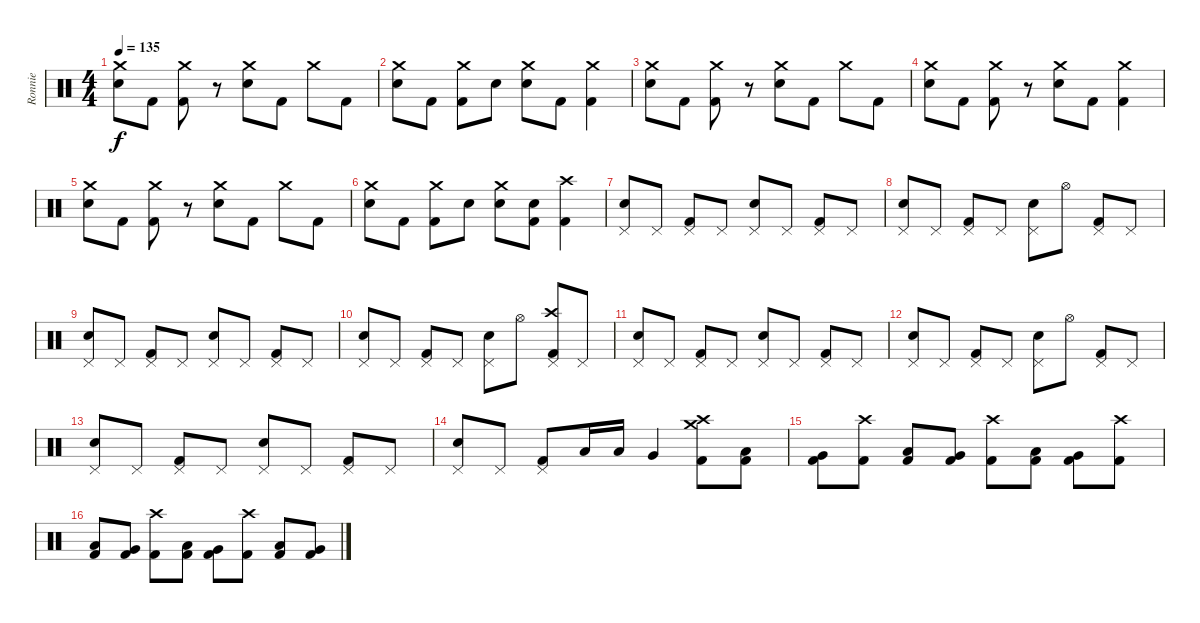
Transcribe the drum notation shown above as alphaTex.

\track ("Ronnie" "Ronnie") {instrument percussion}
\staff {score}
\articulation defaults
\ts (4 4)
\tempo 135
\clef neutral
\ks c
("Crash medium (hit)" "Electric Snare (hit)").8{dy f} "Kick (hit) 2".8 ("Kick (hit) 2" "Crash medium (hit)").8 r.8 ("Crash medium (hit)" "Electric Snare (hit)").8 "Kick (hit) 2".8 "Crash medium (hit)".8 "Kick (hit) 2".8 |
("Crash medium (hit)" "Electric Snare (hit)").8 "Kick (hit) 2".8 ("Kick (hit) 2" "Crash medium (hit)").8 "Electric Snare (hit)".8 ("Crash medium (hit)" "Electric Snare (hit)").8 "Kick (hit) 2".8 ("Kick (hit) 2" "Crash medium (hit)").4 |
("Crash medium (hit)" "Electric Snare (hit)").8 "Kick (hit) 2".8 ("Kick (hit) 2" "Crash medium (hit)").8 r.8 ("Crash medium (hit)" "Electric Snare (hit)").8 "Kick (hit) 2".8 "Crash medium (hit)".8 "Kick (hit) 2".8 |
("Crash medium (hit)" "Electric Snare (hit)").8 "Kick (hit) 2".8 ("Kick (hit) 2" "Crash medium (hit)").8 r.8 ("Crash medium (hit)" "Electric Snare (hit)").8 "Kick (hit) 2".8 ("Kick (hit) 2" "Crash medium (hit)").4 |
("Crash medium (hit)" "Electric Snare (hit)").8 "Kick (hit) 2".8 ("Kick (hit) 2" "Crash medium (hit)").8 r.8 ("Crash medium (hit)" "Electric Snare (hit)").8 "Kick (hit) 2".8 "Crash medium (hit)".8 "Kick (hit) 2".8 |
("Crash medium (hit)" "Electric Snare (hit)").8 "Kick (hit) 2".8 ("Kick (hit) 2" "Crash medium (hit)").8 "Electric Snare (hit)".8 ("Crash medium (hit)" "Electric Snare (hit)").8 ("Kick (hit) 2" "Electric Snare (hit)").8 ("Crash high (hit)" "Kick (hit) 2").4 |
("Pedal Hi-Hat (hit)" "Electric Snare (hit)").8 "Pedal Hi-Hat (hit)".8 ("Pedal Hi-Hat (hit)" "Kick (hit) 2").8 "Pedal Hi-Hat (hit)".8 ("Pedal Hi-Hat (hit)" "Electric Snare (hit)").8 "Pedal Hi-Hat (hit)".8 ("Pedal Hi-Hat (hit)" "Kick (hit) 2").8 "Pedal Hi-Hat (hit)".8 |
("Pedal Hi-Hat (hit)" "Electric Snare (hit)").8 "Pedal Hi-Hat (hit)".8 ("Pedal Hi-Hat (hit)" "Kick (hit) 2").8 "Pedal Hi-Hat (hit)".8 ("Pedal Hi-Hat (hit)" "Electric Snare (hit)").8 "Hi-Hat (open)".8 ("Pedal Hi-Hat (hit)" "Kick (hit) 2").8 "Pedal Hi-Hat (hit)".8 |
("Pedal Hi-Hat (hit)" "Electric Snare (hit)").8 "Pedal Hi-Hat (hit)".8 ("Pedal Hi-Hat (hit)" "Kick (hit) 2").8 "Pedal Hi-Hat (hit)".8 ("Pedal Hi-Hat (hit)" "Electric Snare (hit)").8 "Pedal Hi-Hat (hit)".8 ("Pedal Hi-Hat (hit)" "Kick (hit) 2").8 "Pedal Hi-Hat (hit)".8 |
("Pedal Hi-Hat (hit)" "Electric Snare (hit)").8 "Pedal Hi-Hat (hit)".8 ("Pedal Hi-Hat (hit)" "Kick (hit) 2").8 "Pedal Hi-Hat (hit)".8 ("Pedal Hi-Hat (hit)" "Electric Snare (hit)").8 "Hi-Hat (open)".8 ("Pedal Hi-Hat (hit)" "Kick (hit) 2" "Crash high (hit)").8 "Pedal Hi-Hat (hit)".8 |
("Pedal Hi-Hat (hit)" "Electric Snare (hit)").8 "Pedal Hi-Hat (hit)".8 ("Pedal Hi-Hat (hit)" "Kick (hit) 2").8 "Pedal Hi-Hat (hit)".8 ("Pedal Hi-Hat (hit)" "Electric Snare (hit)").8 "Pedal Hi-Hat (hit)".8 ("Pedal Hi-Hat (hit)" "Kick (hit) 2").8 "Pedal Hi-Hat (hit)".8 |
("Pedal Hi-Hat (hit)" "Electric Snare (hit)").8 "Pedal Hi-Hat (hit)".8 ("Pedal Hi-Hat (hit)" "Kick (hit) 2").8 "Pedal Hi-Hat (hit)".8 ("Pedal Hi-Hat (hit)" "Electric Snare (hit)").8 "Hi-Hat (open)".8 ("Pedal Hi-Hat (hit)" "Kick (hit) 2").8 "Pedal Hi-Hat (hit)".8 |
("Pedal Hi-Hat (hit)" "Electric Snare (hit)").8 "Pedal Hi-Hat (hit)".8 ("Pedal Hi-Hat (hit)" "Kick (hit) 2").8 "Pedal Hi-Hat (hit)".8 ("Pedal Hi-Hat (hit)" "Electric Snare (hit)").8 "Pedal Hi-Hat (hit)".8 ("Pedal Hi-Hat (hit)" "Kick (hit) 2").8 "Pedal Hi-Hat (hit)".8 |
("Pedal Hi-Hat (hit)" "Electric Snare (hit)").8 "Pedal Hi-Hat (hit)".8 ("Pedal Hi-Hat (hit)" "Kick (hit) 2").8 "Low Tom (hit)".16 "Low Tom (hit)".16 "Very Low Tom (hit)".4 ("Crash high (hit)" "Kick (hit) 2" "Crash medium (hit)").8 ("Low Tom (hit)" "Kick (hit) 2").8 |
("Very Low Tom (hit)" "Kick (hit) 2").8 ("Crash high (hit)" "Kick (hit) 2").8 ("Low Tom (hit)" "Kick (hit) 2").8 ("Very Low Tom (hit)" "Kick (hit) 2").8 ("Crash high (hit)" "Kick (hit) 2").8 ("Low Tom (hit)" "Kick (hit) 2").8 ("Very Low Tom (hit)" "Kick (hit) 2").8 ("Crash high (hit)" "Kick (hit) 2").8 |
("Kick (hit) 2" "Low Tom (hit)").8 ("Kick (hit) 2" "Very Low Tom (hit)").8 ("Crash high (hit)" "Kick (hit) 2").8 ("Kick (hit) 2" "Low Tom (hit)").8 ("Kick (hit) 2" "Very Low Tom (hit)").8 ("Crash high (hit)" "Kick (hit) 2").8 ("Kick (hit) 2" "Low Tom (hit)").8 ("Kick (hit) 2" "Very Low Tom (hit)").8
